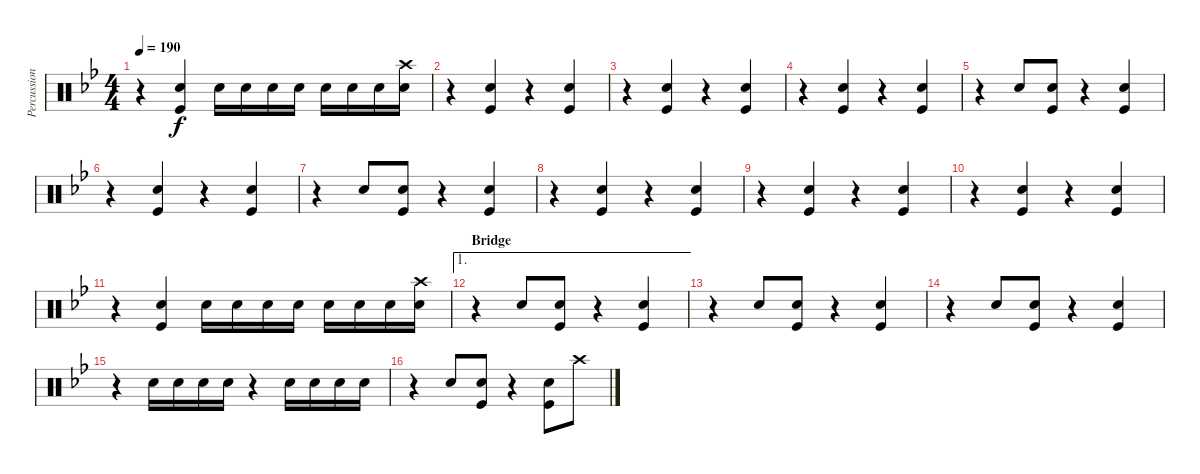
\track ("Percussion" "Percussion") {instrument percussion}
\staff {score}
\articulation defaults
\ts (4 4)
\tempo 190
\clef neutral
\ks bb
r.4{dy f} ("Kick (hit)" "Snare (hit) 2").4 "Snare (hit) 2".16 "Snare (hit) 2".16 "Snare (hit) 2".16 "Snare (hit) 2".16 "Snare (hit) 2".16 "Snare (hit) 2".16 "Snare (hit) 2".16 ("Snare (hit) 2" "Crash high (hit)").16 |
r.4 ("Kick (hit)" "Snare (hit) 2").4 r.4 ("Kick (hit)" "Snare (hit) 2").4 |
r.4 ("Kick (hit)" "Snare (hit) 2").4 r.4 ("Kick (hit)" "Snare (hit) 2").4 |
r.4 ("Kick (hit)" "Snare (hit) 2").4 r.4 ("Kick (hit)" "Snare (hit) 2").4 |
r.4 "Snare (hit) 2".8 ("Kick (hit)" "Snare (hit) 2").8 r.4 ("Kick (hit)" "Snare (hit) 2").4 |
r.4 ("Kick (hit)" "Snare (hit) 2").4 r.4 ("Kick (hit)" "Snare (hit) 2").4 |
r.4 "Snare (hit) 2".8 ("Kick (hit)" "Snare (hit) 2").8 r.4 ("Kick (hit)" "Snare (hit) 2").4 |
r.4 ("Kick (hit)" "Snare (hit) 2").4 r.4 ("Kick (hit)" "Snare (hit) 2").4 |
r.4 ("Kick (hit)" "Snare (hit) 2").4 r.4 ("Kick (hit)" "Snare (hit) 2").4 |
r.4 ("Kick (hit)" "Snare (hit) 2").4 r.4 ("Kick (hit)" "Snare (hit) 2").4 |
r.4 ("Kick (hit)" "Snare (hit) 2").4 "Snare (hit) 2".16 "Snare (hit) 2".16 "Snare (hit) 2".16 "Snare (hit) 2".16 "Snare (hit) 2".16 "Snare (hit) 2".16 "Snare (hit) 2".16 ("Snare (hit) 2" "Crash high (hit)").16 |
\ae 1
\section ("" "Bridge")
r.4 "Snare (hit) 2".8 ("Kick (hit)" "Snare (hit) 2").8 r.4 ("Kick (hit)" "Snare (hit) 2").4 |
r.4 "Snare (hit) 2".8 ("Kick (hit)" "Snare (hit) 2").8 r.4 ("Kick (hit)" "Snare (hit) 2").4 |
r.4 "Snare (hit) 2".8 ("Kick (hit)" "Snare (hit) 2").8 r.4 ("Kick (hit)" "Snare (hit) 2").4 |
r.4 "Snare (hit) 2".16 "Snare (hit) 2".16 "Snare (hit) 2".16 "Snare (hit) 2".16 r.4 "Snare (hit) 2".16 "Snare (hit) 2".16 "Snare (hit) 2".16 "Snare (hit) 2".16 |
r.4 "Snare (hit) 2".8 ("Kick (hit)" "Snare (hit) 2").8 r.4 ("Kick (hit)" "Snare (hit) 2").8 "Crash high (hit)".8
